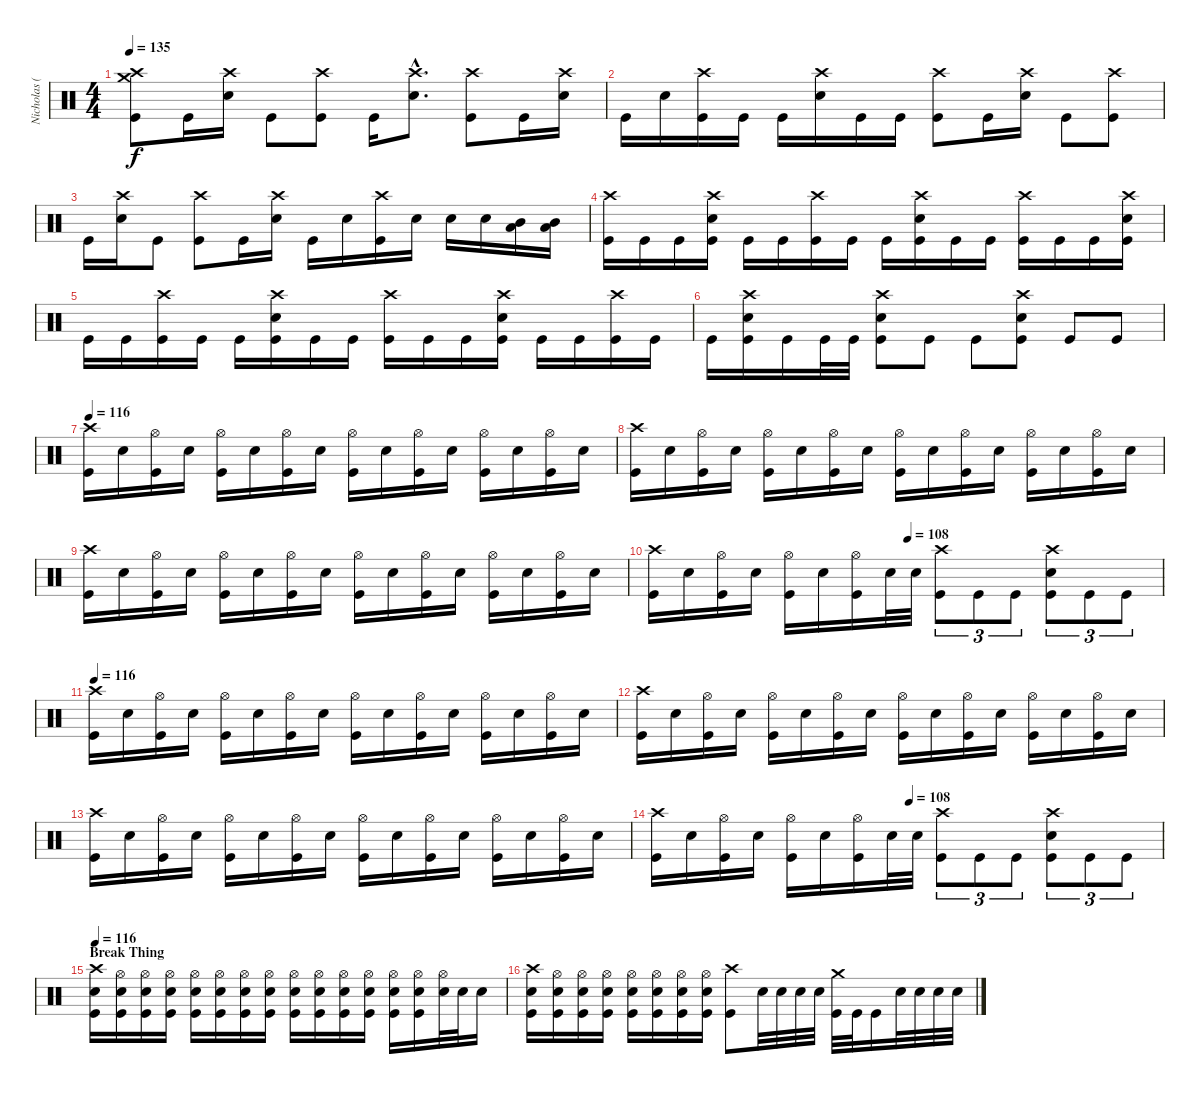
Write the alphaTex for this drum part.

\track ("Nicholas (Drums)" "Nicholas (") {instrument percussion}
\staff {score}
\articulation defaults
\ts (4 4)
\tempo 135
\clef neutral
\ks c
("Crash medium (hit)" "Crash high (hit)" "Kick (hit)").8{dy f} "Kick (hit)".16 ("Crash high (hit)" "Electric Snare (hit)").16 "Kick (hit)".8 ("Crash high (hit)" "Kick (hit)").8 "Kick (hit)".16 ("Crash high (hit)"{hac} "Electric Snare (hit)"{hac}).8{d} ("Crash high (hit)" "Kick (hit)").8 "Kick (hit)".16 ("Crash high (hit)" "Electric Snare (hit)").16 |
"Kick (hit)".16 "Electric Snare (hit)".16 ("Crash high (hit)" "Kick (hit)").16 "Kick (hit)".16 "Kick (hit)".16 ("Crash high (hit)" "Electric Snare (hit)").16 "Kick (hit)".16 "Kick (hit)".16 ("Crash high (hit)" "Kick (hit)").8 "Kick (hit)".16 ("Crash high (hit)" "Electric Snare (hit)").16 "Kick (hit)".8 ("Crash high (hit)" "Kick (hit)").8 |
"Kick (hit)".16 ("Crash high (hit)" "Electric Snare (hit)").16 "Kick (hit)".8 ("Crash high (hit)" "Kick (hit)").8 "Kick (hit)".16 ("Crash high (hit)" "Electric Snare (hit)").16 "Kick (hit)".16 "Electric Snare (hit)".16 ("Crash high (hit)" "Kick (hit)").16 "Electric Snare (hit)".16 "Electric Snare (hit)".16 "Electric Snare (hit)".16 ("Mid Tom (hit)" "Low Tom (hit)").16 ("Mid Tom (hit)" "Low Tom (hit)").16 |
("Crash high (hit)" "Kick (hit)").16 "Kick (hit)".16 "Kick (hit)".16 ("Crash high (hit)" "Electric Snare (hit)" "Kick (hit)").16 "Kick (hit)".16 "Kick (hit)".16 ("Crash high (hit)" "Kick (hit)").16 "Kick (hit)".16 "Kick (hit)".16 ("Crash high (hit)" "Electric Snare (hit)" "Kick (hit)").16 "Kick (hit)".16 "Kick (hit)".16 ("Crash high (hit)" "Kick (hit)").16 "Kick (hit)".16 "Kick (hit)".16 ("Crash high (hit)" "Electric Snare (hit)" "Kick (hit)").16 |
"Kick (hit)".16 "Kick (hit)".16 ("Crash high (hit)" "Kick (hit)").16 "Kick (hit)".16 "Kick (hit)".16 ("Crash high (hit)" "Electric Snare (hit)" "Kick (hit)").16 "Kick (hit)".16 "Kick (hit)".16 ("Crash high (hit)" "Kick (hit)").16 "Kick (hit)".16 "Kick (hit)".16 ("Crash high (hit)" "Electric Snare (hit)" "Kick (hit)").16 "Kick (hit)".16 "Kick (hit)".16 ("Crash high (hit)" "Kick (hit)").16 "Kick (hit)".16 |
"Kick (hit)".16 ("Crash high (hit)" "Electric Snare (hit)" "Kick (hit)").16 "Kick (hit)".16 "Kick (hit)".32 "Kick (hit)".32 ("Crash high (hit)" "Electric Snare (hit)" "Kick (hit)").8 "Kick (hit)".8 "Kick (hit)".8 ("Crash high (hit)" "Electric Snare (hit)" "Kick (hit)").8 "Kick (hit)".8 "Kick (hit)".8 |
\tempo 116
("Crash high (hit)" "Kick (hit)").16 "Electric Snare (hit)".16 ("Hi-Hat (open)" "Kick (hit)").16 "Electric Snare (hit)".16 ("Hi-Hat (open)" "Kick (hit)").16 "Electric Snare (hit)".16 ("Hi-Hat (open)" "Kick (hit)").16 "Electric Snare (hit)".16 ("Hi-Hat (open)" "Kick (hit)").16 "Electric Snare (hit)".16 ("Hi-Hat (open)" "Kick (hit)").16 "Electric Snare (hit)".16 ("Hi-Hat (open)" "Kick (hit)").16 "Electric Snare (hit)".16 ("Hi-Hat (open)" "Kick (hit)").16 "Electric Snare (hit)".16 |
("Crash high (hit)" "Kick (hit)").16 "Electric Snare (hit)".16 ("Hi-Hat (open)" "Kick (hit)").16 "Electric Snare (hit)".16 ("Hi-Hat (open)" "Kick (hit)").16 "Electric Snare (hit)".16 ("Hi-Hat (open)" "Kick (hit)").16 "Electric Snare (hit)".16 ("Hi-Hat (open)" "Kick (hit)").16 "Electric Snare (hit)".16 ("Hi-Hat (open)" "Kick (hit)").16 "Electric Snare (hit)".16 ("Hi-Hat (open)" "Kick (hit)").16 "Electric Snare (hit)".16 ("Hi-Hat (open)" "Kick (hit)").16 "Electric Snare (hit)".16 |
("Crash high (hit)" "Kick (hit)").16 "Electric Snare (hit)".16 ("Hi-Hat (open)" "Kick (hit)").16 "Electric Snare (hit)".16 ("Hi-Hat (open)" "Kick (hit)").16 "Electric Snare (hit)".16 ("Hi-Hat (open)" "Kick (hit)").16 "Electric Snare (hit)".16 ("Hi-Hat (open)" "Kick (hit)").16 "Electric Snare (hit)".16 ("Hi-Hat (open)" "Kick (hit)").16 "Electric Snare (hit)".16 ("Hi-Hat (open)" "Kick (hit)").16 "Electric Snare (hit)".16 ("Hi-Hat (open)" "Kick (hit)").16 "Electric Snare (hit)".16 |
\tempo (108 0.5)
("Crash high (hit)" "Kick (hit)").16 "Electric Snare (hit)".16 ("Hi-Hat (open)" "Kick (hit)").16 "Electric Snare (hit)".16 ("Hi-Hat (open)" "Kick (hit)").16 "Electric Snare (hit)".16 ("Hi-Hat (open)" "Kick (hit)").16 "Electric Snare (hit)".32 "Electric Snare (hit)".32 ("Crash high (hit)" "Kick (hit)").8{tu (3 2)} "Kick (hit)".8{tu (3 2)} "Kick (hit)".8{tu (3 2)} ("Crash high (hit)" "Electric Snare (hit)" "Kick (hit)").8{tu (3 2)} "Kick (hit)".8{tu (3 2)} "Kick (hit)".8{tu (3 2)} |
\tempo 116
("Crash high (hit)" "Kick (hit)").16 "Electric Snare (hit)".16 ("Hi-Hat (open)" "Kick (hit)").16 "Electric Snare (hit)".16 ("Hi-Hat (open)" "Kick (hit)").16 "Electric Snare (hit)".16 ("Hi-Hat (open)" "Kick (hit)").16 "Electric Snare (hit)".16 ("Hi-Hat (open)" "Kick (hit)").16 "Electric Snare (hit)".16 ("Hi-Hat (open)" "Kick (hit)").16 "Electric Snare (hit)".16 ("Hi-Hat (open)" "Kick (hit)").16 "Electric Snare (hit)".16 ("Hi-Hat (open)" "Kick (hit)").16 "Electric Snare (hit)".16 |
("Crash high (hit)" "Kick (hit)").16 "Electric Snare (hit)".16 ("Hi-Hat (open)" "Kick (hit)").16 "Electric Snare (hit)".16 ("Hi-Hat (open)" "Kick (hit)").16 "Electric Snare (hit)".16 ("Hi-Hat (open)" "Kick (hit)").16 "Electric Snare (hit)".16 ("Hi-Hat (open)" "Kick (hit)").16 "Electric Snare (hit)".16 ("Hi-Hat (open)" "Kick (hit)").16 "Electric Snare (hit)".16 ("Hi-Hat (open)" "Kick (hit)").16 "Electric Snare (hit)".16 ("Hi-Hat (open)" "Kick (hit)").16 "Electric Snare (hit)".16 |
("Crash high (hit)" "Kick (hit)").16 "Electric Snare (hit)".16 ("Hi-Hat (open)" "Kick (hit)").16 "Electric Snare (hit)".16 ("Hi-Hat (open)" "Kick (hit)").16 "Electric Snare (hit)".16 ("Hi-Hat (open)" "Kick (hit)").16 "Electric Snare (hit)".16 ("Hi-Hat (open)" "Kick (hit)").16 "Electric Snare (hit)".16 ("Hi-Hat (open)" "Kick (hit)").16 "Electric Snare (hit)".16 ("Hi-Hat (open)" "Kick (hit)").16 "Electric Snare (hit)".16 ("Hi-Hat (open)" "Kick (hit)").16 "Electric Snare (hit)".16 |
\tempo (108 0.5)
("Crash high (hit)" "Kick (hit)").16 "Electric Snare (hit)".16 ("Hi-Hat (open)" "Kick (hit)").16 "Electric Snare (hit)".16 ("Hi-Hat (open)" "Kick (hit)").16 "Electric Snare (hit)".16 ("Hi-Hat (open)" "Kick (hit)").16 "Electric Snare (hit)".32 "Electric Snare (hit)".32 ("Crash high (hit)" "Kick (hit)").8{tu (3 2)} "Kick (hit)".8{tu (3 2)} "Kick (hit)".8{tu (3 2)} ("Crash high (hit)" "Electric Snare (hit)" "Kick (hit)").8{tu (3 2)} "Kick (hit)".8{tu (3 2)} "Kick (hit)".8{tu (3 2)} |
\section ("" "Break Thing")
\tempo 116
("Crash high (hit)" "Electric Snare (hit)" "Kick (hit)").16 ("Hi-Hat (open)" "Electric Snare (hit)" "Kick (hit)").16 ("Hi-Hat (open)" "Electric Snare (hit)" "Kick (hit)").16 ("Hi-Hat (open)" "Electric Snare (hit)" "Kick (hit)").16 ("Hi-Hat (open)" "Electric Snare (hit)" "Kick (hit)").16 ("Hi-Hat (open)" "Electric Snare (hit)" "Kick (hit)").16 ("Hi-Hat (open)" "Electric Snare (hit)" "Kick (hit)").16 ("Hi-Hat (open)" "Electric Snare (hit)" "Kick (hit)").16 ("Hi-Hat (open)" "Electric Snare (hit)" "Kick (hit)").16 ("Hi-Hat (open)" "Electric Snare (hit)" "Kick (hit)").16 ("Hi-Hat (open)" "Electric Snare (hit)" "Kick (hit)").16 ("Hi-Hat (open)" "Electric Snare (hit)" "Kick (hit)").16 ("Hi-Hat (open)" "Electric Snare (hit)" "Kick (hit)").16 ("Hi-Hat (open)" "Electric Snare (hit)" "Kick (hit)").16 ("Hi-Hat (open)" "Electric Snare (hit)").32 "Electric Snare (hit)".32 "Electric Snare (hit)".16 |
("Crash high (hit)" "Electric Snare (hit)" "Kick (hit)").16 ("Hi-Hat (open)" "Electric Snare (hit)" "Kick (hit)").16 ("Hi-Hat (open)" "Electric Snare (hit)" "Kick (hit)").16 ("Hi-Hat (open)" "Electric Snare (hit)" "Kick (hit)").16 ("Hi-Hat (open)" "Electric Snare (hit)" "Kick (hit)").16 ("Hi-Hat (open)" "Electric Snare (hit)" "Kick (hit)").16 ("Hi-Hat (open)" "Electric Snare (hit)" "Kick (hit)").16 ("Hi-Hat (open)" "Electric Snare (hit)" "Kick (hit)").16 ("Crash high (hit)" "Kick (hit)").8 "Electric Snare (hit)".32 "Electric Snare (hit)".32 "Electric Snare (hit)".32 "Electric Snare (hit)".32 ("Crash medium (hit)" "Kick (hit)").32 "Kick (hit)".32 "Kick (hit)".16 "Electric Snare (hit)".32 "Electric Snare (hit)".32 "Electric Snare (hit)".32 "Electric Snare (hit)".32
